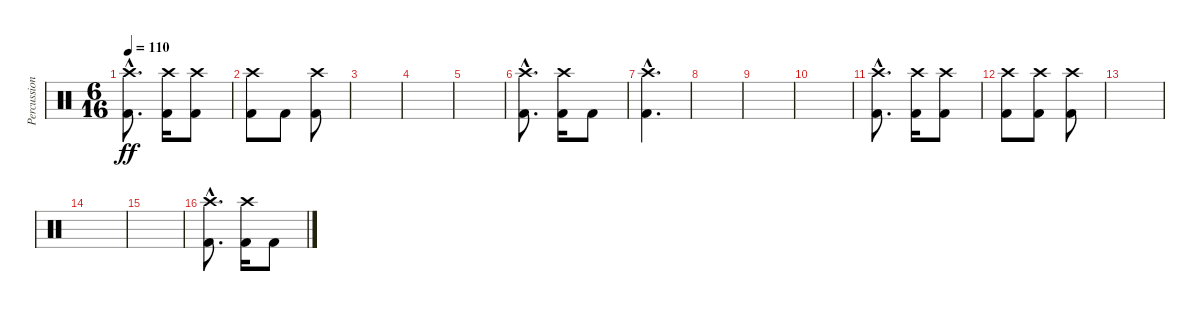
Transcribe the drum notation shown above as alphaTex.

\track ("Percussion" "Percussion") {instrument percussion}
\staff {score}
\articulation defaults
\ts (6 16)
\tempo 110
\clef neutral
\ks c
("Crash high (hit)"{hac} "Kick (hit) 2"{hac}).8{d dy ff} ("Crash high (hit)" "Kick (hit) 2").16 ("Crash high (hit)" "Kick (hit) 2").8 |
("Crash high (hit)" "Kick (hit) 2").8 "Kick (hit) 2".8 ("Crash high (hit)" "Kick (hit) 2").8 |
|
|
|
("Crash high (hit)"{hac} "Kick (hit) 2"{hac}).8{d} ("Crash high (hit)" "Kick (hit) 2").16 "Kick (hit) 2".8 |
("Crash high (hit)"{hac} "Kick (hit) 2"{hac}).4{d} |
|
|
|
("Crash high (hit)"{hac} "Kick (hit) 2"{hac}).8{d} ("Crash high (hit)" "Kick (hit) 2").16 ("Crash high (hit)" "Kick (hit) 2").8 |
("Crash high (hit)" "Kick (hit) 2").8 ("Crash high (hit)" "Kick (hit) 2").8 ("Crash high (hit)" "Kick (hit) 2").8 |
|
|
|
("Crash high (hit)"{hac} "Kick (hit) 2"{hac}).8{d} ("Crash high (hit)" "Kick (hit) 2").16 "Kick (hit) 2".8
